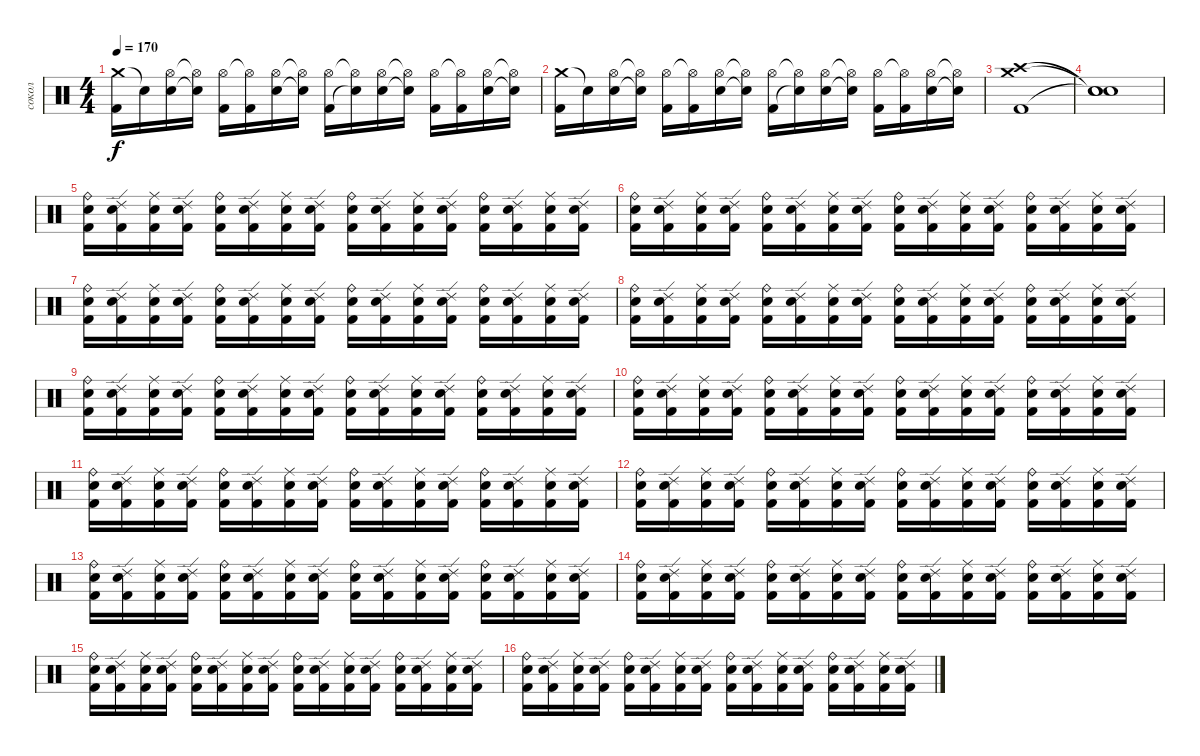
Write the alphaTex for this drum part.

\track ("сокол" "сокол") {instrument percussion}
\staff
\articulation defaults
\ts (4 4)
\tempo 170
\clef neutral
\ks c
("Crash medium (hit)" "Kick (hit) 2").16{dy f} "Snare (hit)"{t}.16 ("Hi-Hat (open)" "Electric Snare (hit)").16 ("Hi-Hat (open)"{t} "Snare (hit)"{t}).16 ("Hi-Hat (open)" "Kick (hit) 2").16 ("Hi-Hat (open)"{t} "Kick (hit) 2").16 ("Hi-Hat (open)" "Electric Snare (hit)").16 ("Hi-Hat (open)"{t} "Snare (hit)"{t}).16 ("Hi-Hat (open)" "Kick (hit) 2").16 ("Hi-Hat (open)"{t} "Snare (hit)"{t}).16 ("Hi-Hat (open)" "Electric Snare (hit)").16 ("Hi-Hat (open)"{t} "Snare (hit)"{t}).16 ("Hi-Hat (open)" "Kick (hit) 2").16 ("Hi-Hat (open)"{t} "Kick (hit) 2").16 ("Hi-Hat (open)" "Electric Snare (hit)").16 ("Hi-Hat (open)"{t} "Snare (hit)"{t}).16 |
("Crash medium (hit)" "Kick (hit) 2").16 "Snare (hit)"{t}.16 ("Hi-Hat (open)" "Electric Snare (hit)").16 ("Hi-Hat (open)"{t} "Snare (hit)"{t}).16 ("Hi-Hat (open)" "Kick (hit) 2").16 ("Hi-Hat (open)"{t} "Kick (hit) 2").16 ("Hi-Hat (open)" "Electric Snare (hit)").16 ("Hi-Hat (open)"{t} "Snare (hit)"{t}).16 ("Hi-Hat (open)" "Kick (hit) 2").16 ("Hi-Hat (open)"{t} "Snare (hit)"{t}).16 ("Hi-Hat (open)" "Electric Snare (hit)").16 ("Hi-Hat (open)"{t} "Snare (hit)"{t}).16 ("Hi-Hat (open)" "Kick (hit) 2").16 ("Hi-Hat (open)"{t} "Kick (hit) 2").16 ("Hi-Hat (open)" "Electric Snare (hit)").16 ("Hi-Hat (open)"{t} "Snare (hit)"{t}).16 |
("Crash high (hit)" "Crash medium (hit)" "Kick (hit) 2").1 |
("Snare (hit)"{t} "Snare (hit)"{t} "Snare (hit)"{t}).1 |
("Ride (bell)" "Electric Snare (hit)" "Kick (hit) 2").16 ("Ride (edge) 2" "Electric Snare (hit)" "Kick (hit) 2").16 ("Ride (middle)" "Electric Snare (hit)" "Kick (hit) 2").16 ("Ride (edge) 2" "Electric Snare (hit)" "Kick (hit) 2").16 ("Ride (bell)" "Electric Snare (hit)" "Kick (hit) 2").16 ("Ride (edge) 2" "Electric Snare (hit)" "Kick (hit) 2").16 ("Ride (middle)" "Electric Snare (hit)" "Kick (hit) 2").16 ("Ride (edge) 2" "Electric Snare (hit)" "Kick (hit) 2").16 ("Ride (bell)" "Electric Snare (hit)" "Kick (hit) 2").16 ("Ride (edge) 2" "Electric Snare (hit)" "Kick (hit) 2").16 ("Ride (middle)" "Electric Snare (hit)" "Kick (hit) 2").16 ("Ride (edge) 2" "Electric Snare (hit)" "Kick (hit) 2").16 ("Ride (bell)" "Electric Snare (hit)" "Kick (hit) 2").16 ("Ride (edge) 2" "Electric Snare (hit)" "Kick (hit) 2").16 ("Ride (middle)" "Electric Snare (hit)" "Kick (hit) 2").16 ("Ride (edge) 2" "Electric Snare (hit)" "Kick (hit) 2").16 |
("Ride (bell)" "Electric Snare (hit)" "Kick (hit) 2").16 ("Ride (edge) 2" "Electric Snare (hit)" "Kick (hit) 2").16 ("Ride (middle)" "Electric Snare (hit)" "Kick (hit) 2").16 ("Ride (edge) 2" "Electric Snare (hit)" "Kick (hit) 2").16 ("Ride (bell)" "Electric Snare (hit)" "Kick (hit) 2").16 ("Ride (edge) 2" "Electric Snare (hit)" "Kick (hit) 2").16 ("Ride (middle)" "Electric Snare (hit)" "Kick (hit) 2").16 ("Ride (edge) 2" "Electric Snare (hit)" "Kick (hit) 2").16 ("Ride (bell)" "Electric Snare (hit)" "Kick (hit) 2").16 ("Ride (edge) 2" "Electric Snare (hit)" "Kick (hit) 2").16 ("Ride (middle)" "Electric Snare (hit)" "Kick (hit) 2").16 ("Ride (edge) 2" "Electric Snare (hit)" "Kick (hit) 2").16 ("Ride (bell)" "Electric Snare (hit)" "Kick (hit) 2").16 ("Ride (edge) 2" "Electric Snare (hit)" "Kick (hit) 2").16 ("Ride (middle)" "Electric Snare (hit)" "Kick (hit) 2").16 ("Ride (edge) 2" "Electric Snare (hit)" "Kick (hit) 2").16 |
("Ride (bell)" "Electric Snare (hit)" "Kick (hit) 2").16 ("Ride (edge) 2" "Electric Snare (hit)" "Kick (hit) 2").16 ("Ride (middle)" "Electric Snare (hit)" "Kick (hit) 2").16 ("Ride (edge) 2" "Electric Snare (hit)" "Kick (hit) 2").16 ("Ride (bell)" "Electric Snare (hit)" "Kick (hit) 2").16 ("Ride (edge) 2" "Electric Snare (hit)" "Kick (hit) 2").16 ("Ride (middle)" "Electric Snare (hit)" "Kick (hit) 2").16 ("Ride (edge) 2" "Electric Snare (hit)" "Kick (hit) 2").16 ("Ride (bell)" "Electric Snare (hit)" "Kick (hit) 2").16 ("Ride (edge) 2" "Electric Snare (hit)" "Kick (hit) 2").16 ("Ride (middle)" "Electric Snare (hit)" "Kick (hit) 2").16 ("Ride (edge) 2" "Electric Snare (hit)" "Kick (hit) 2").16 ("Ride (bell)" "Electric Snare (hit)" "Kick (hit) 2").16 ("Ride (edge) 2" "Electric Snare (hit)" "Kick (hit) 2").16 ("Ride (middle)" "Electric Snare (hit)" "Kick (hit) 2").16 ("Ride (edge) 2" "Electric Snare (hit)" "Kick (hit) 2").16 |
("Ride (bell)" "Electric Snare (hit)" "Kick (hit) 2").16 ("Ride (edge) 2" "Electric Snare (hit)" "Kick (hit) 2").16 ("Ride (middle)" "Electric Snare (hit)" "Kick (hit) 2").16 ("Ride (edge) 2" "Electric Snare (hit)" "Kick (hit) 2").16 ("Ride (bell)" "Electric Snare (hit)" "Kick (hit) 2").16 ("Ride (edge) 2" "Electric Snare (hit)" "Kick (hit) 2").16 ("Ride (middle)" "Electric Snare (hit)" "Kick (hit) 2").16 ("Ride (edge) 2" "Electric Snare (hit)" "Kick (hit) 2").16 ("Ride (bell)" "Electric Snare (hit)" "Kick (hit) 2").16 ("Ride (edge) 2" "Electric Snare (hit)" "Kick (hit) 2").16 ("Ride (middle)" "Electric Snare (hit)" "Kick (hit) 2").16 ("Ride (edge) 2" "Electric Snare (hit)" "Kick (hit) 2").16 ("Ride (bell)" "Electric Snare (hit)" "Kick (hit) 2").16 ("Ride (edge) 2" "Electric Snare (hit)" "Kick (hit) 2").16 ("Ride (middle)" "Electric Snare (hit)" "Kick (hit) 2").16 ("Ride (edge) 2" "Electric Snare (hit)" "Kick (hit) 2").16 |
("Ride (bell)" "Electric Snare (hit)" "Kick (hit) 2").16 ("Ride (edge) 2" "Electric Snare (hit)" "Kick (hit) 2").16 ("Ride (middle)" "Electric Snare (hit)" "Kick (hit) 2").16 ("Ride (edge) 2" "Electric Snare (hit)" "Kick (hit) 2").16 ("Ride (bell)" "Electric Snare (hit)" "Kick (hit) 2").16 ("Ride (edge) 2" "Electric Snare (hit)" "Kick (hit) 2").16 ("Ride (middle)" "Electric Snare (hit)" "Kick (hit) 2").16 ("Ride (edge) 2" "Electric Snare (hit)" "Kick (hit) 2").16 ("Ride (bell)" "Electric Snare (hit)" "Kick (hit) 2").16 ("Ride (edge) 2" "Electric Snare (hit)" "Kick (hit) 2").16 ("Ride (middle)" "Electric Snare (hit)" "Kick (hit) 2").16 ("Ride (edge) 2" "Electric Snare (hit)" "Kick (hit) 2").16 ("Ride (bell)" "Electric Snare (hit)" "Kick (hit) 2").16 ("Ride (edge) 2" "Electric Snare (hit)" "Kick (hit) 2").16 ("Ride (middle)" "Electric Snare (hit)" "Kick (hit) 2").16 ("Ride (edge) 2" "Electric Snare (hit)" "Kick (hit) 2").16 |
("Ride (bell)" "Electric Snare (hit)" "Kick (hit) 2").16 ("Ride (edge) 2" "Electric Snare (hit)" "Kick (hit) 2").16 ("Ride (middle)" "Electric Snare (hit)" "Kick (hit) 2").16 ("Ride (edge) 2" "Electric Snare (hit)" "Kick (hit) 2").16 ("Ride (bell)" "Electric Snare (hit)" "Kick (hit) 2").16 ("Ride (edge) 2" "Electric Snare (hit)" "Kick (hit) 2").16 ("Ride (middle)" "Electric Snare (hit)" "Kick (hit) 2").16 ("Ride (edge) 2" "Electric Snare (hit)" "Kick (hit) 2").16 ("Ride (bell)" "Electric Snare (hit)" "Kick (hit) 2").16 ("Ride (edge) 2" "Electric Snare (hit)" "Kick (hit) 2").16 ("Ride (middle)" "Electric Snare (hit)" "Kick (hit) 2").16 ("Ride (edge) 2" "Electric Snare (hit)" "Kick (hit) 2").16 ("Ride (bell)" "Electric Snare (hit)" "Kick (hit) 2").16 ("Ride (edge) 2" "Electric Snare (hit)" "Kick (hit) 2").16 ("Ride (middle)" "Electric Snare (hit)" "Kick (hit) 2").16 ("Ride (edge) 2" "Electric Snare (hit)" "Kick (hit) 2").16 |
("Ride (bell)" "Electric Snare (hit)" "Kick (hit) 2").16 ("Ride (edge) 2" "Electric Snare (hit)" "Kick (hit) 2").16 ("Ride (middle)" "Electric Snare (hit)" "Kick (hit) 2").16 ("Ride (edge) 2" "Electric Snare (hit)" "Kick (hit) 2").16 ("Ride (bell)" "Electric Snare (hit)" "Kick (hit) 2").16 ("Ride (edge) 2" "Electric Snare (hit)" "Kick (hit) 2").16 ("Ride (middle)" "Electric Snare (hit)" "Kick (hit) 2").16 ("Ride (edge) 2" "Electric Snare (hit)" "Kick (hit) 2").16 ("Ride (bell)" "Electric Snare (hit)" "Kick (hit) 2").16 ("Ride (edge) 2" "Electric Snare (hit)" "Kick (hit) 2").16 ("Ride (middle)" "Electric Snare (hit)" "Kick (hit) 2").16 ("Ride (edge) 2" "Electric Snare (hit)" "Kick (hit) 2").16 ("Ride (bell)" "Electric Snare (hit)" "Kick (hit) 2").16 ("Ride (edge) 2" "Electric Snare (hit)" "Kick (hit) 2").16 ("Ride (middle)" "Electric Snare (hit)" "Kick (hit) 2").16 ("Ride (edge) 2" "Electric Snare (hit)" "Kick (hit) 2").16 |
("Ride (bell)" "Electric Snare (hit)" "Kick (hit) 2").16 ("Ride (edge) 2" "Electric Snare (hit)" "Kick (hit) 2").16 ("Ride (middle)" "Electric Snare (hit)" "Kick (hit) 2").16 ("Ride (edge) 2" "Electric Snare (hit)" "Kick (hit) 2").16 ("Ride (bell)" "Electric Snare (hit)" "Kick (hit) 2").16 ("Ride (edge) 2" "Electric Snare (hit)" "Kick (hit) 2").16 ("Ride (middle)" "Electric Snare (hit)" "Kick (hit) 2").16 ("Ride (edge) 2" "Electric Snare (hit)" "Kick (hit) 2").16 ("Ride (bell)" "Electric Snare (hit)" "Kick (hit) 2").16 ("Ride (edge) 2" "Electric Snare (hit)" "Kick (hit) 2").16 ("Ride (middle)" "Electric Snare (hit)" "Kick (hit) 2").16 ("Ride (edge) 2" "Electric Snare (hit)" "Kick (hit) 2").16 ("Ride (bell)" "Electric Snare (hit)" "Kick (hit) 2").16 ("Ride (edge) 2" "Electric Snare (hit)" "Kick (hit) 2").16 ("Ride (middle)" "Electric Snare (hit)" "Kick (hit) 2").16 ("Ride (edge) 2" "Electric Snare (hit)" "Kick (hit) 2").16 |
("Ride (bell)" "Electric Snare (hit)" "Kick (hit) 2").16 ("Ride (edge) 2" "Electric Snare (hit)" "Kick (hit) 2").16 ("Ride (middle)" "Electric Snare (hit)" "Kick (hit) 2").16 ("Ride (edge) 2" "Electric Snare (hit)" "Kick (hit) 2").16 ("Ride (bell)" "Electric Snare (hit)" "Kick (hit) 2").16 ("Ride (edge) 2" "Electric Snare (hit)" "Kick (hit) 2").16 ("Ride (middle)" "Electric Snare (hit)" "Kick (hit) 2").16 ("Ride (edge) 2" "Electric Snare (hit)" "Kick (hit) 2").16 ("Ride (bell)" "Electric Snare (hit)" "Kick (hit) 2").16 ("Ride (edge) 2" "Electric Snare (hit)" "Kick (hit) 2").16 ("Ride (middle)" "Electric Snare (hit)" "Kick (hit) 2").16 ("Ride (edge) 2" "Electric Snare (hit)" "Kick (hit) 2").16 ("Ride (bell)" "Electric Snare (hit)" "Kick (hit) 2").16 ("Ride (edge) 2" "Electric Snare (hit)" "Kick (hit) 2").16 ("Ride (middle)" "Electric Snare (hit)" "Kick (hit) 2").16 ("Ride (edge) 2" "Electric Snare (hit)" "Kick (hit) 2").16 |
("Ride (bell)" "Electric Snare (hit)" "Kick (hit) 2").16 ("Ride (edge) 2" "Electric Snare (hit)" "Kick (hit) 2").16 ("Ride (middle)" "Electric Snare (hit)" "Kick (hit) 2").16 ("Ride (edge) 2" "Electric Snare (hit)" "Kick (hit) 2").16 ("Ride (bell)" "Electric Snare (hit)" "Kick (hit) 2").16 ("Ride (edge) 2" "Electric Snare (hit)" "Kick (hit) 2").16 ("Ride (middle)" "Electric Snare (hit)" "Kick (hit) 2").16 ("Ride (edge) 2" "Electric Snare (hit)" "Kick (hit) 2").16 ("Ride (bell)" "Electric Snare (hit)" "Kick (hit) 2").16 ("Ride (edge) 2" "Electric Snare (hit)" "Kick (hit) 2").16 ("Ride (middle)" "Electric Snare (hit)" "Kick (hit) 2").16 ("Ride (edge) 2" "Electric Snare (hit)" "Kick (hit) 2").16 ("Ride (bell)" "Electric Snare (hit)" "Kick (hit) 2").16 ("Ride (edge) 2" "Electric Snare (hit)" "Kick (hit) 2").16 ("Ride (middle)" "Electric Snare (hit)" "Kick (hit) 2").16 ("Ride (edge) 2" "Electric Snare (hit)" "Kick (hit) 2").16 |
("Ride (bell)" "Electric Snare (hit)" "Kick (hit) 2").16 ("Ride (edge) 2" "Electric Snare (hit)" "Kick (hit) 2").16 ("Ride (middle)" "Electric Snare (hit)" "Kick (hit) 2").16 ("Ride (edge) 2" "Electric Snare (hit)" "Kick (hit) 2").16 ("Ride (bell)" "Electric Snare (hit)" "Kick (hit) 2").16 ("Ride (edge) 2" "Electric Snare (hit)" "Kick (hit) 2").16 ("Ride (middle)" "Electric Snare (hit)" "Kick (hit) 2").16 ("Ride (edge) 2" "Electric Snare (hit)" "Kick (hit) 2").16 ("Ride (bell)" "Electric Snare (hit)" "Kick (hit) 2").16 ("Ride (edge) 2" "Electric Snare (hit)" "Kick (hit) 2").16 ("Ride (middle)" "Electric Snare (hit)" "Kick (hit) 2").16 ("Ride (edge) 2" "Electric Snare (hit)" "Kick (hit) 2").16 ("Ride (bell)" "Electric Snare (hit)" "Kick (hit) 2").16 ("Ride (edge) 2" "Electric Snare (hit)" "Kick (hit) 2").16 ("Ride (middle)" "Electric Snare (hit)" "Kick (hit) 2").16 ("Ride (edge) 2" "Electric Snare (hit)" "Kick (hit) 2").16 |
("Ride (bell)" "Electric Snare (hit)" "Kick (hit) 2").16 ("Ride (edge) 2" "Electric Snare (hit)" "Kick (hit) 2").16 ("Ride (middle)" "Electric Snare (hit)" "Kick (hit) 2").16 ("Ride (edge) 2" "Electric Snare (hit)" "Kick (hit) 2").16 ("Ride (bell)" "Electric Snare (hit)" "Kick (hit) 2").16 ("Ride (edge) 2" "Electric Snare (hit)" "Kick (hit) 2").16 ("Ride (middle)" "Electric Snare (hit)" "Kick (hit) 2").16 ("Ride (edge) 2" "Electric Snare (hit)" "Kick (hit) 2").16 ("Ride (bell)" "Electric Snare (hit)" "Kick (hit) 2").16 ("Ride (edge) 2" "Electric Snare (hit)" "Kick (hit) 2").16 ("Ride (middle)" "Electric Snare (hit)" "Kick (hit) 2").16 ("Ride (edge) 2" "Electric Snare (hit)" "Kick (hit) 2").16 ("Ride (bell)" "Electric Snare (hit)" "Kick (hit) 2").16 ("Ride (edge) 2" "Electric Snare (hit)" "Kick (hit) 2").16 ("Ride (middle)" "Electric Snare (hit)" "Kick (hit) 2").16 ("Ride (edge) 2" "Electric Snare (hit)" "Kick (hit) 2").16
